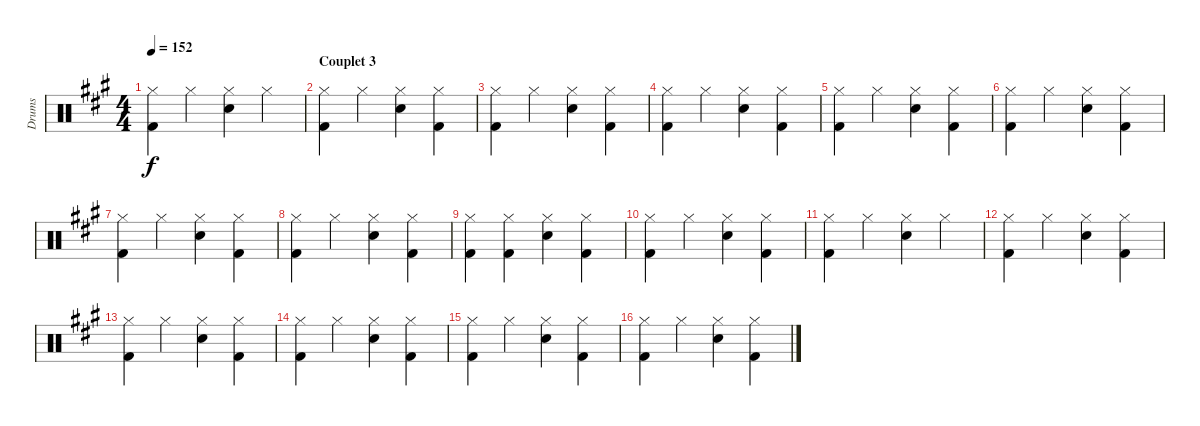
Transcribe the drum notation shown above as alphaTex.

\track ("Drums" "Drums") {instrument percussion}
\staff {score}
\articulation defaults
\ts (4 4)
\tempo 152
\clef neutral
\ks a
("Hi-Hat (closed)" "Kick (hit) 2").4{dy f} "Hi-Hat (closed)".4 ("Hi-Hat (closed)" "Electric Snare (hit)").4 "Hi-Hat (closed)".4 |
\section ("" "Couplet 3")
("Hi-Hat (closed)" "Kick (hit) 2").4 "Hi-Hat (closed)".4 ("Hi-Hat (closed)" "Electric Snare (hit)").4 ("Hi-Hat (closed)" "Kick (hit) 2").4 |
("Hi-Hat (closed)" "Kick (hit) 2").4 "Hi-Hat (closed)".4 ("Hi-Hat (closed)" "Electric Snare (hit)").4 ("Hi-Hat (closed)" "Kick (hit) 2").4 |
("Hi-Hat (closed)" "Kick (hit) 2").4 "Hi-Hat (closed)".4 ("Hi-Hat (closed)" "Electric Snare (hit)").4 ("Hi-Hat (closed)" "Kick (hit) 2").4 |
("Hi-Hat (closed)" "Kick (hit) 2").4 "Hi-Hat (closed)".4 ("Hi-Hat (closed)" "Electric Snare (hit)").4 ("Hi-Hat (closed)" "Kick (hit) 2").4 |
("Hi-Hat (closed)" "Kick (hit) 2").4 "Hi-Hat (closed)".4 ("Hi-Hat (closed)" "Electric Snare (hit)").4 ("Hi-Hat (closed)" "Kick (hit) 2").4 |
("Hi-Hat (closed)" "Kick (hit) 2").4 "Hi-Hat (closed)".4 ("Hi-Hat (closed)" "Electric Snare (hit)").4 ("Hi-Hat (closed)" "Kick (hit) 2").4 |
("Hi-Hat (closed)" "Kick (hit) 2").4 "Hi-Hat (closed)".4 ("Hi-Hat (closed)" "Electric Snare (hit)").4 ("Hi-Hat (closed)" "Kick (hit) 2").4 |
("Hi-Hat (closed)" "Kick (hit) 2").4 ("Hi-Hat (closed)" "Kick (hit) 2").4 ("Hi-Hat (closed)" "Electric Snare (hit)").4 ("Hi-Hat (closed)" "Kick (hit) 2").4 |
("Hi-Hat (closed)" "Kick (hit) 2").4 "Hi-Hat (closed)".4 ("Hi-Hat (closed)" "Electric Snare (hit)").4 ("Hi-Hat (closed)" "Kick (hit) 2").4 |
("Hi-Hat (closed)" "Kick (hit) 2").4 "Hi-Hat (closed)".4 ("Hi-Hat (closed)" "Electric Snare (hit)").4 "Hi-Hat (closed)".4 |
("Hi-Hat (closed)" "Kick (hit) 2").4 "Hi-Hat (closed)".4 ("Hi-Hat (closed)" "Electric Snare (hit)").4 ("Hi-Hat (closed)" "Kick (hit) 2").4 |
("Hi-Hat (closed)" "Kick (hit) 2").4 "Hi-Hat (closed)".4 ("Hi-Hat (closed)" "Electric Snare (hit)").4 ("Hi-Hat (closed)" "Kick (hit) 2").4 |
("Hi-Hat (closed)" "Kick (hit) 2").4 "Hi-Hat (closed)".4 ("Hi-Hat (closed)" "Electric Snare (hit)").4 ("Hi-Hat (closed)" "Kick (hit) 2").4 |
("Hi-Hat (closed)" "Kick (hit) 2").4 "Hi-Hat (closed)".4 ("Hi-Hat (closed)" "Electric Snare (hit)").4 ("Hi-Hat (closed)" "Kick (hit) 2").4 |
("Hi-Hat (closed)" "Kick (hit) 2").4 "Hi-Hat (closed)".4 ("Hi-Hat (closed)" "Electric Snare (hit)").4 ("Hi-Hat (closed)" "Kick (hit) 2").4
